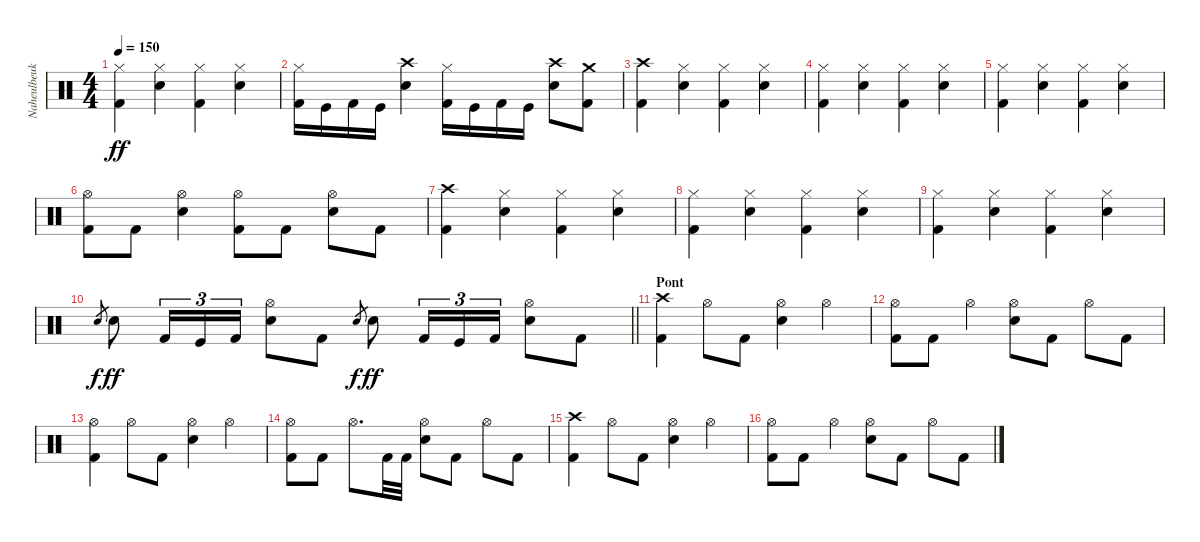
\track ("Naheulbeuk" "Naheulbeuk") {instrument percussion}
\staff {score}
\articulation defaults
\ts (4 4)
\tempo 150
\clef neutral
\ks c
("Hi-Hat (closed)" "Kick (hit) 2").4{dy ff} ("Hi-Hat (closed)" "Snare (hit) 2").4 ("Hi-Hat (closed)" "Kick (hit) 2").4 ("Hi-Hat (closed)" "Snare (hit) 2").4 |
("Hi-Hat (closed)" "Kick (hit) 2").16 "Kick (hit)".16 "Kick (hit) 2".16 "Kick (hit)".16 ("Crash high (hit)" "Snare (hit) 2").4 ("Hi-Hat (closed)" "Kick (hit) 2").16 "Kick (hit)".16 "Kick (hit) 2".16 "Kick (hit)".16 ("Crash high (hit)" "Snare (hit) 2").8 ("Crash medium (hit)" "Kick (hit) 2").8 |
("Crash high (hit)" "Kick (hit) 2").4 ("Hi-Hat (closed)" "Snare (hit) 2").4 ("Hi-Hat (closed)" "Kick (hit) 2").4 ("Hi-Hat (closed)" "Snare (hit) 2").4 |
("Hi-Hat (closed)" "Kick (hit) 2").4 ("Hi-Hat (closed)" "Snare (hit) 2").4 ("Hi-Hat (closed)" "Kick (hit) 2").4 ("Hi-Hat (closed)" "Snare (hit) 2").4 |
("Hi-Hat (closed)" "Kick (hit) 2").4 ("Hi-Hat (closed)" "Snare (hit) 2").4 ("Hi-Hat (closed)" "Kick (hit) 2").4 ("Hi-Hat (closed)" "Snare (hit) 2").4 |
("Hi-Hat (open)" "Kick (hit) 2").8 "Kick (hit) 2".8 ("Hi-Hat (open)" "Snare (hit) 2").4 ("Hi-Hat (open)" "Kick (hit) 2").8 "Kick (hit) 2".8 ("Hi-Hat (open)" "Snare (hit) 2").8 "Kick (hit) 2".8 |
("Crash high (hit)" "Kick (hit) 2").4 ("Hi-Hat (closed)" "Snare (hit) 2").4 ("Hi-Hat (closed)" "Kick (hit) 2").4 ("Hi-Hat (closed)" "Snare (hit) 2").4 |
("Hi-Hat (closed)" "Kick (hit) 2").4 ("Hi-Hat (closed)" "Snare (hit) 2").4 ("Hi-Hat (closed)" "Kick (hit) 2").4 ("Hi-Hat (closed)" "Snare (hit) 2").4 |
("Hi-Hat (closed)" "Kick (hit) 2").4 ("Hi-Hat (closed)" "Snare (hit) 2").4 ("Hi-Hat (closed)" "Kick (hit) 2").4 ("Hi-Hat (closed)" "Snare (hit) 2").4 |
\barLineRight lightlight "Snare (hit) 2".8{gr dy f} "Snare (hit) 2".8{dy ff} "Kick (hit) 2".16{tu (3 2)} "Kick (hit)".16{tu (3 2)} "Kick (hit) 2".16{tu (3 2)}
("Hi-Hat (open)" "Snare (hit) 2").8 "Kick (hit) 2".8 "Snare (hit) 2".8{gr dy f} "Snare (hit) 2".8{dy ff} "Kick (hit) 2".16{tu (3 2)} "Kick (hit)".16{tu (3 2)} "Kick (hit) 2".16{tu (3 2)} ("Hi-Hat (open)" "Snare (hit) 2").8 "Kick (hit) 2".8 |
\section ("" "Pont")
("Crash high (hit)" "Kick (hit) 2").4 "Hi-Hat (open)".8 "Kick (hit) 2".8 ("Hi-Hat (open)" "Snare (hit) 2").4 "Hi-Hat (open)".4 |
("Hi-Hat (open)" "Kick (hit) 2").8 "Kick (hit) 2".8 "Hi-Hat (open)".4 ("Hi-Hat (open)" "Snare (hit) 2").8 "Kick (hit) 2".8 "Hi-Hat (open)".8 "Kick (hit) 2".8 |
("Hi-Hat (open)" "Kick (hit) 2").4 "Hi-Hat (open)".8 "Kick (hit) 2".8 ("Hi-Hat (open)" "Snare (hit) 2").4 "Hi-Hat (open)".4 |
("Hi-Hat (open)" "Kick (hit) 2").8 "Kick (hit) 2".8 "Hi-Hat (open)".8{d} "Kick (hit) 2".32 "Kick (hit) 2".32 ("Hi-Hat (open)" "Snare (hit) 2").8 "Kick (hit) 2".8 "Hi-Hat (open)".8 "Kick (hit) 2".8 |
("Crash high (hit)" "Kick (hit) 2").4 "Hi-Hat (open)".8 "Kick (hit) 2".8 ("Hi-Hat (open)" "Snare (hit) 2").4 "Hi-Hat (open)".4 |
("Hi-Hat (open)" "Kick (hit) 2").8 "Kick (hit) 2".8 "Hi-Hat (open)".4 ("Hi-Hat (open)" "Snare (hit) 2").8 "Kick (hit) 2".8 "Hi-Hat (open)".8 "Kick (hit) 2".8
